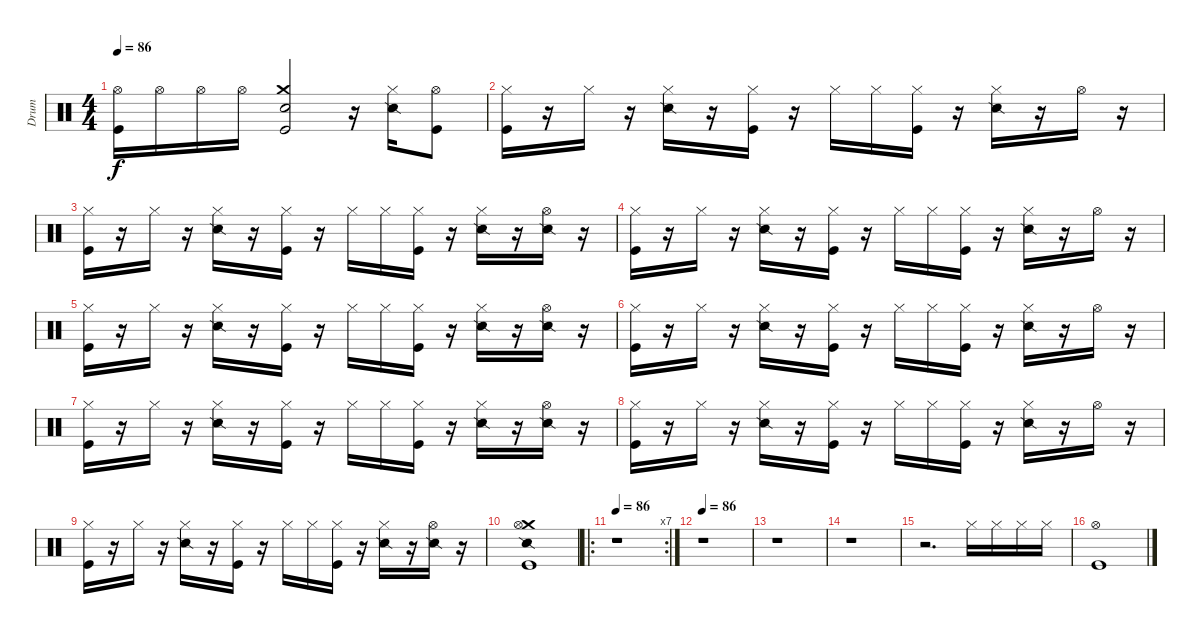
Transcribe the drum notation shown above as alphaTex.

\track ("Drum" "Drum") {instrument percussion}
\staff {score}
\articulation defaults
\ts (4 4)
\tempo 86
\clef neutral
\ks c
("Hi-Hat (open)" "Kick (hit)").16{dy f} "Hi-Hat (open)".16 "Hi-Hat (open)".16 "Hi-Hat (open)".16 ("Crash medium (hit)" "Electric Snare (hit)" "Kick (hit)").2 r.16 ("Hi-Hat (closed)" "Snare (side stick) 2").16 ("Hi-Hat (open)" "Kick (hit)").8 |
("Hi-Hat (closed)" "Kick (hit)").16 r.16 "Hi-Hat (closed)".16 r.16 ("Hi-Hat (closed)" "Snare (side stick) 2").16 r.16 ("Hi-Hat (closed)" "Kick (hit)").16 r.16 "Hi-Hat (closed)".16 "Hi-Hat (closed)".16 ("Hi-Hat (closed)" "Kick (hit)").16 r.16 ("Hi-Hat (closed)" "Snare (side stick) 2").16 r.16 "Hi-Hat (open)".16 r.16 |
("Hi-Hat (closed)" "Kick (hit)").16 r.16 "Hi-Hat (closed)".16 r.16 ("Hi-Hat (closed)" "Snare (side stick) 2").16 r.16 ("Hi-Hat (closed)" "Kick (hit)").16 r.16 "Hi-Hat (closed)".16 "Hi-Hat (closed)".16 ("Hi-Hat (closed)" "Kick (hit)").16 r.16 ("Hi-Hat (closed)" "Snare (side stick) 2").16 r.16 ("Hi-Hat (open)" "Snare (side stick) 2").16 r.16 |
("Hi-Hat (closed)" "Kick (hit)").16 r.16 "Hi-Hat (closed)".16 r.16 ("Hi-Hat (closed)" "Snare (side stick) 2").16 r.16 ("Hi-Hat (closed)" "Kick (hit)").16 r.16 "Hi-Hat (closed)".16 "Hi-Hat (closed)".16 ("Hi-Hat (closed)" "Kick (hit)").16 r.16 ("Hi-Hat (closed)" "Snare (side stick) 2").16 r.16 "Hi-Hat (open)".16 r.16 |
("Hi-Hat (closed)" "Kick (hit)").16 r.16 "Hi-Hat (closed)".16 r.16 ("Hi-Hat (closed)" "Snare (side stick) 2").16 r.16 ("Hi-Hat (closed)" "Kick (hit)").16 r.16 "Hi-Hat (closed)".16 "Hi-Hat (closed)".16 ("Hi-Hat (closed)" "Kick (hit)").16 r.16 ("Hi-Hat (closed)" "Snare (side stick) 2").16 r.16 ("Hi-Hat (open)" "Snare (side stick) 2").16 r.16 |
("Hi-Hat (closed)" "Kick (hit)").16 r.16 "Hi-Hat (closed)".16 r.16 ("Hi-Hat (closed)" "Snare (side stick) 2").16 r.16 ("Hi-Hat (closed)" "Kick (hit)").16 r.16 "Hi-Hat (closed)".16 "Hi-Hat (closed)".16 ("Hi-Hat (closed)" "Kick (hit)").16 r.16 ("Hi-Hat (closed)" "Snare (side stick) 2").16 r.16 "Hi-Hat (open)".16 r.16 |
("Hi-Hat (closed)" "Kick (hit)").16 r.16 "Hi-Hat (closed)".16 r.16 ("Hi-Hat (closed)" "Snare (side stick) 2").16 r.16 ("Hi-Hat (closed)" "Kick (hit)").16 r.16 "Hi-Hat (closed)".16 "Hi-Hat (closed)".16 ("Hi-Hat (closed)" "Kick (hit)").16 r.16 ("Hi-Hat (closed)" "Snare (side stick) 2").16 r.16 ("Hi-Hat (open)" "Snare (side stick) 2").16 r.16 |
("Hi-Hat (closed)" "Kick (hit)").16 r.16 "Hi-Hat (closed)".16 r.16 ("Hi-Hat (closed)" "Snare (side stick) 2").16 r.16 ("Hi-Hat (closed)" "Kick (hit)").16 r.16 "Hi-Hat (closed)".16 "Hi-Hat (closed)".16 ("Hi-Hat (closed)" "Kick (hit)").16 r.16 ("Hi-Hat (closed)" "Snare (side stick) 2").16 r.16 "Hi-Hat (open)".16 r.16 |
("Hi-Hat (closed)" "Kick (hit)").16 r.16 "Hi-Hat (closed)".16 r.16 ("Hi-Hat (closed)" "Snare (side stick) 2").16 r.16 ("Hi-Hat (closed)" "Kick (hit)").16 r.16 "Hi-Hat (closed)".16 "Hi-Hat (closed)".16 ("Hi-Hat (closed)" "Kick (hit)").16 r.16 ("Hi-Hat (closed)" "Snare (side stick) 2").16 r.16 ("Hi-Hat (open)" "Snare (side stick) 2").16 r.16 |
("Crash medium (hit)" "Hi-Hat (open)" "Snare (side stick) 2" "Kick (hit)").1 |
\ro
\rc 7
\tempo 86
r.1 |
\tempo 86
r.1 |
r.1 |
r.1 |
r.2{d} "Hi-Hat (closed)".16 "Hi-Hat (closed)".16 "Hi-Hat (closed)".16 "Hi-Hat (closed)".16 |
("Hi-Hat (open)" "Kick (hit)").1
